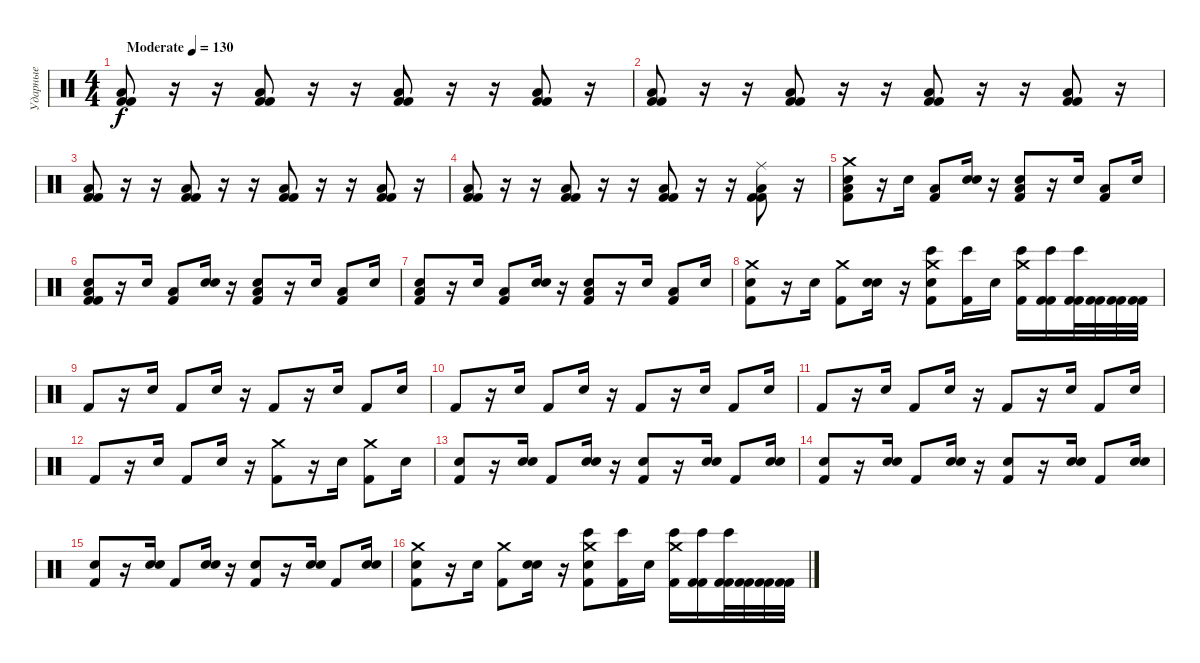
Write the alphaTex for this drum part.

\track ("Ударные" "Ударные") {instrument percussion}
\staff {score}
\articulation defaults
\ts (4 4)
\tempo (130 "Moderate")
\clef neutral
\ks c
("Kick (hit) 2" "Low Floor Tom (hit)" "Kick (hit) 2").8{dy f} r.16 r.16 ("Kick (hit) 2" "Low Floor Tom (hit)" "Kick (hit) 2").8 r.16 r.16 ("Kick (hit) 2" "Low Floor Tom (hit)" "Kick (hit) 2").8 r.16 r.16 ("Kick (hit) 2" "Low Floor Tom (hit)" "Kick (hit) 2").8 r.16 |
("Kick (hit) 2" "Low Floor Tom (hit)" "Kick (hit) 2").8 r.16 r.16 ("Kick (hit) 2" "Low Floor Tom (hit)" "Kick (hit) 2").8 r.16 r.16 ("Kick (hit) 2" "Low Floor Tom (hit)" "Kick (hit) 2").8 r.16 r.16 ("Kick (hit) 2" "Low Floor Tom (hit)" "Kick (hit) 2").8 r.16 |
("Kick (hit) 2" "Low Floor Tom (hit)" "Kick (hit) 2").8 r.16 r.16 ("Kick (hit) 2" "Low Floor Tom (hit)" "Kick (hit) 2").8 r.16 r.16 ("Kick (hit) 2" "Low Floor Tom (hit)" "Kick (hit) 2").8 r.16 r.16 ("Kick (hit) 2" "Low Floor Tom (hit)" "Kick (hit) 2").8 r.16 |
("Kick (hit) 2" "Low Floor Tom (hit)" "Kick (hit) 2").8 r.16 r.16 ("Kick (hit) 2" "Low Floor Tom (hit)" "Kick (hit) 2").8 r.16 r.16 ("Kick (hit) 2" "Low Floor Tom (hit)" "Kick (hit) 2").8 r.16 r.16 ("Kick (hit) 2" "Low Floor Tom (hit)" "Ride (middle)" "Kick (hit) 2").8 r.16 |
("Kick (hit) 2" "Hand Clap (hit)" "Crash medium (hit)" "Low Floor Tom (hit)").8 r.16 "Hand Clap (hit)".16 ("Kick (hit) 2" "Low Floor Tom (hit)").8 ("Electric Snare (hit)" "Hand Clap (hit)").16 r.16 ("Kick (hit) 2" "Hand Clap (hit)" "Low Floor Tom (hit)").8 r.16 "Hand Clap (hit)".16 ("Kick (hit) 2" "Low Floor Tom (hit)").8 "Hand Clap (hit)".16 |
("Kick (hit) 2" "Hand Clap (hit)" "Low Floor Tom (hit)" "Kick (hit) 2").8 r.16 "Hand Clap (hit)".16 ("Kick (hit) 2" "Low Floor Tom (hit)").8 ("Electric Snare (hit)" "Hand Clap (hit)").16 r.16 ("Kick (hit) 2" "Hand Clap (hit)" "Low Floor Tom (hit)").8 r.16 "Hand Clap (hit)".16 ("Kick (hit) 2" "Low Floor Tom (hit)").8 "Hand Clap (hit)".16 |
("Kick (hit) 2" "Hand Clap (hit)" "Low Floor Tom (hit)").8 r.16 "Hand Clap (hit)".16 ("Kick (hit) 2" "Low Floor Tom (hit)").8 ("Electric Snare (hit)" "Hand Clap (hit)").16 r.16 ("Kick (hit) 2" "Hand Clap (hit)" "Low Floor Tom (hit)").8 r.16 "Hand Clap (hit)".16 ("Kick (hit) 2" "Low Floor Tom (hit)").8 "Hand Clap (hit)".16 |
("Kick (hit) 2" "Hand Clap (hit)" "Crash medium (hit)").8 r.16 "Hand Clap (hit)".16 ("Kick (hit) 2" "Crash medium (hit)").8 ("Electric Snare (hit)" "Hand Clap (hit)").16 r.16 ("Kick (hit) 2" "Hand Clap (hit)" "Bongo High (hit)" "Crash medium (hit)").8 ("Kick (hit) 2" "Bongo High (hit)").16 "Hand Clap (hit)".16 ("Kick (hit) 2" "Bongo High (hit)" "Crash medium (hit)").16 ("Kick (hit) 2" "Bongo High (hit)" "Kick (hit) 2").16 ("Kick (hit) 2" "Bongo High (hit)" "Kick (hit) 2").32 ("Kick (hit) 2" "Kick (hit) 2").32 ("Kick (hit) 2" "Kick (hit) 2").32 ("Kick (hit) 2" "Kick (hit) 2").32 |
"Kick (hit) 2".8 r.16 "Electric Snare (hit)".16 "Kick (hit) 2".8 "Electric Snare (hit)".16 r.16 "Kick (hit) 2".8 r.16 "Electric Snare (hit)".16 "Kick (hit) 2".8 "Electric Snare (hit)".16 |
"Kick (hit) 2".8 r.16 "Electric Snare (hit)".16 "Kick (hit) 2".8 "Electric Snare (hit)".16 r.16 "Kick (hit) 2".8 r.16 "Electric Snare (hit)".16 "Kick (hit) 2".8 "Electric Snare (hit)".16 |
"Kick (hit) 2".8 r.16 "Electric Snare (hit)".16 "Kick (hit) 2".8 "Electric Snare (hit)".16 r.16 "Kick (hit) 2".8 r.16 "Electric Snare (hit)".16 "Kick (hit) 2".8 "Electric Snare (hit)".16 |
"Kick (hit) 2".8 r.16 "Electric Snare (hit)".16 "Kick (hit) 2".8 "Electric Snare (hit)".16 r.16 ("Kick (hit) 2" "Crash medium (hit)").8 r.16 "Electric Snare (hit)".16 ("Kick (hit) 2" "Crash medium (hit)").8 "Electric Snare (hit)".16 |
("Kick (hit) 2" "Hand Clap (hit)").8 r.16 ("Electric Snare (hit)" "Hand Clap (hit)").16 "Kick (hit) 2".8 ("Electric Snare (hit)" "Hand Clap (hit)").16 r.16 ("Kick (hit) 2" "Hand Clap (hit)").8 r.16 ("Electric Snare (hit)" "Hand Clap (hit)").16 "Kick (hit) 2".8 ("Electric Snare (hit)" "Hand Clap (hit)").16 |
("Kick (hit) 2" "Hand Clap (hit)").8 r.16 ("Electric Snare (hit)" "Hand Clap (hit)").16 "Kick (hit) 2".8 ("Electric Snare (hit)" "Hand Clap (hit)").16 r.16 ("Kick (hit) 2" "Hand Clap (hit)").8 r.16 ("Electric Snare (hit)" "Hand Clap (hit)").16 "Kick (hit) 2".8 ("Electric Snare (hit)" "Hand Clap (hit)").16 |
("Kick (hit) 2" "Hand Clap (hit)").8 r.16 ("Electric Snare (hit)" "Hand Clap (hit)").16 "Kick (hit) 2".8 ("Electric Snare (hit)" "Hand Clap (hit)").16 r.16 ("Kick (hit) 2" "Hand Clap (hit)").8 r.16 ("Electric Snare (hit)" "Hand Clap (hit)").16 "Kick (hit) 2".8 ("Electric Snare (hit)" "Hand Clap (hit)").16 |
("Kick (hit) 2" "Hand Clap (hit)" "Crash medium (hit)").8 r.16 "Hand Clap (hit)".16 ("Kick (hit) 2" "Crash medium (hit)").8 ("Electric Snare (hit)" "Hand Clap (hit)").16 r.16 ("Kick (hit) 2" "Hand Clap (hit)" "Bongo High (hit)" "Crash medium (hit)").8 ("Kick (hit) 2" "Bongo High (hit)").16 "Hand Clap (hit)".16 ("Kick (hit) 2" "Bongo High (hit)" "Crash medium (hit)").16 ("Kick (hit) 2" "Bongo High (hit)" "Kick (hit) 2").16 ("Kick (hit) 2" "Bongo High (hit)" "Kick (hit) 2").32 ("Kick (hit) 2" "Kick (hit) 2").32 ("Kick (hit) 2" "Kick (hit) 2").32 ("Kick (hit) 2" "Kick (hit) 2").32
